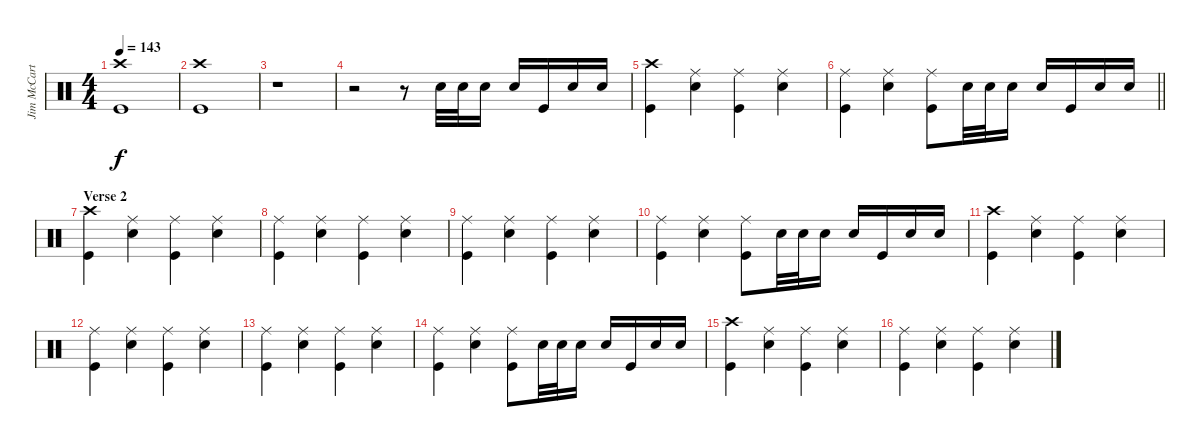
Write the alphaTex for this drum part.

\track ("Jim McCarty" "Jim McCart") {instrument percussion}
\staff {score}
\articulation defaults
\ts (4 4)
\tempo 143
\clef neutral
\ks c
("Crash high (hit)" "Kick (hit)").1{dy f} |
("Crash high (hit)" "Kick (hit)").1 |
r.1 |
r.2 r.8 "Electric Snare (hit)".32 "Electric Snare (hit)".32 "Electric Snare (hit)".16 "Electric Snare (hit)".16 "Kick (hit)".16 "Electric Snare (hit)".16 "Electric Snare (hit)".16 |
("Crash high (hit)" "Kick (hit)").4 ("Ride (middle)" "Electric Snare (hit)").4 ("Ride (middle)" "Kick (hit)").4 ("Ride (middle)" "Electric Snare (hit)").4 |
\barLineRight lightlight
("Ride (middle)" "Kick (hit)").4 ("Ride (middle)" "Electric Snare (hit)").4 ("Ride (middle)" "Kick (hit)").8 "Electric Snare (hit)".32 "Electric Snare (hit)".32 "Electric Snare (hit)".16 "Electric Snare (hit)".16 "Kick (hit)".16 "Electric Snare (hit)".16 "Electric Snare (hit)".16 |
\section ("" "Verse 2")
("Crash high (hit)" "Kick (hit)").4 ("Ride (middle)" "Electric Snare (hit)").4 ("Ride (middle)" "Kick (hit)").4 ("Ride (middle)" "Electric Snare (hit)").4 |
("Ride (middle)" "Kick (hit)").4 ("Ride (middle)" "Electric Snare (hit)").4 ("Ride (middle)" "Kick (hit)").4 ("Ride (middle)" "Electric Snare (hit)").4 |
("Ride (middle)" "Kick (hit)").4 ("Ride (middle)" "Electric Snare (hit)").4 ("Ride (middle)" "Kick (hit)").4 ("Ride (middle)" "Electric Snare (hit)").4 |
("Ride (middle)" "Kick (hit)").4 ("Ride (middle)" "Electric Snare (hit)").4 ("Ride (middle)" "Kick (hit)").8 "Electric Snare (hit)".32 "Electric Snare (hit)".32 "Electric Snare (hit)".16 "Electric Snare (hit)".16 "Kick (hit)".16 "Electric Snare (hit)".16 "Electric Snare (hit)".16 |
("Crash high (hit)" "Kick (hit)").4 ("Ride (middle)" "Electric Snare (hit)").4 ("Ride (middle)" "Kick (hit)").4 ("Ride (middle)" "Electric Snare (hit)").4 |
("Ride (middle)" "Kick (hit)").4 ("Ride (middle)" "Electric Snare (hit)").4 ("Ride (middle)" "Kick (hit)").4 ("Ride (middle)" "Electric Snare (hit)").4 |
("Ride (middle)" "Kick (hit)").4 ("Ride (middle)" "Electric Snare (hit)").4 ("Ride (middle)" "Kick (hit)").4 ("Ride (middle)" "Electric Snare (hit)").4 |
("Ride (middle)" "Kick (hit)").4 ("Ride (middle)" "Electric Snare (hit)").4 ("Ride (middle)" "Kick (hit)").8 "Electric Snare (hit)".32 "Electric Snare (hit)".32 "Electric Snare (hit)".16 "Electric Snare (hit)".16 "Kick (hit)".16 "Electric Snare (hit)".16 "Electric Snare (hit)".16 |
("Crash high (hit)" "Kick (hit)").4 ("Ride (middle)" "Electric Snare (hit)").4 ("Ride (middle)" "Kick (hit)").4 ("Ride (middle)" "Electric Snare (hit)").4 |
("Ride (middle)" "Kick (hit)").4 ("Ride (middle)" "Electric Snare (hit)").4 ("Ride (middle)" "Kick (hit)").4 ("Ride (middle)" "Electric Snare (hit)").4
